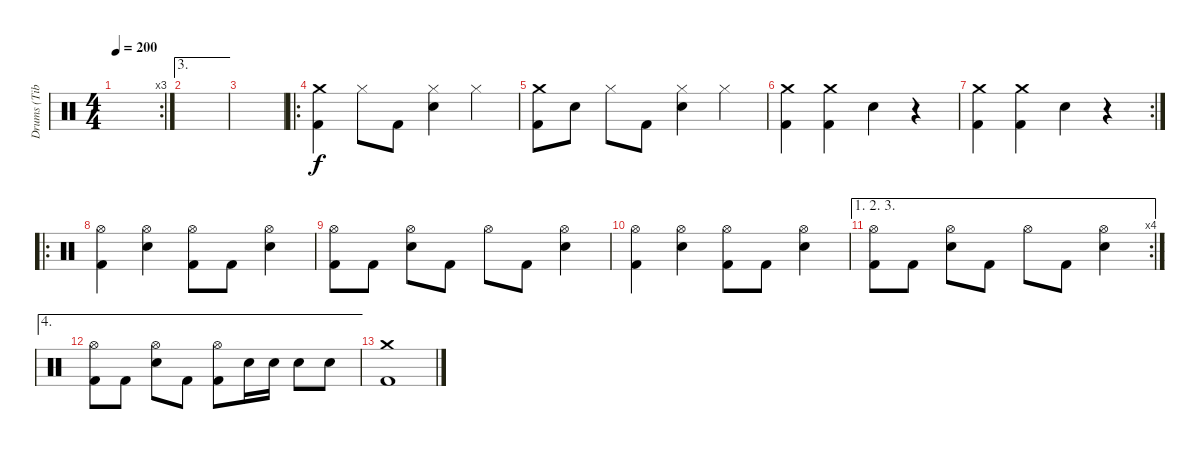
\track ("Drums (Tibcsi Kiss)" "Drums (Tib") {instrument percussion}
\staff {score}
\articulation defaults
\rc 3
\ts (4 4)
\tempo 200
\clef neutral
\ks c
|
\ae 3
|
|
\ro
("Crash medium (hit)" "Kick (hit) 2").4 "Hi-Hat (closed)".8 "Kick (hit) 2".8 ("Hi-Hat (closed)" "Snare (hit) 2").4 "Hi-Hat (closed)".4 |
("Crash medium (hit)" "Kick (hit) 2").8 "Snare (hit) 2".8 "Hi-Hat (closed)".8 "Kick (hit) 2".8 ("Hi-Hat (closed)" "Snare (hit) 2").4 "Hi-Hat (closed)".4 |
("Crash medium (hit)" "Kick (hit) 2").4 ("Crash medium (hit)" "Kick (hit) 2").4 "Snare (hit) 2".4 r.4 |
\rc 2
("Crash medium (hit)" "Kick (hit) 2").4 ("Crash medium (hit)" "Kick (hit) 2").4 "Snare (hit) 2".4 r.4 |
\ro
("Hi-Hat (open)" "Kick (hit) 2").4 ("Hi-Hat (open)" "Snare (hit) 2").4 ("Hi-Hat (open)" "Kick (hit) 2").8 "Kick (hit) 2".8 ("Hi-Hat (open)" "Snare (hit) 2").4 |
("Hi-Hat (open)" "Kick (hit) 2").8 "Kick (hit) 2".8 ("Hi-Hat (open)" "Snare (hit) 2").8 "Kick (hit) 2".8 "Hi-Hat (open)".8 "Kick (hit) 2".8 ("Hi-Hat (open)" "Snare (hit) 2").4 |
("Hi-Hat (open)" "Kick (hit) 2").4 ("Hi-Hat (open)" "Snare (hit) 2").4 ("Hi-Hat (open)" "Kick (hit) 2").8 "Kick (hit) 2".8 ("Hi-Hat (open)" "Snare (hit) 2").4 |
\ae (1 2 3)
\rc 4
("Hi-Hat (open)" "Kick (hit) 2").8 "Kick (hit) 2".8 ("Hi-Hat (open)" "Snare (hit) 2").8 "Kick (hit) 2".8 "Hi-Hat (open)".8 "Kick (hit) 2".8 ("Hi-Hat (open)" "Snare (hit) 2").4 |
\ae 4
("Hi-Hat (open)" "Kick (hit) 2").8 "Kick (hit) 2".8 ("Hi-Hat (open)" "Snare (hit) 2").8 "Kick (hit) 2".8 ("Hi-Hat (open)" "Kick (hit) 2").8 "Snare (hit) 2".16 "Snare (hit) 2".16 "Snare (hit) 2".8 "Snare (hit) 2".8 |
("Crash medium (hit)" "Kick (hit) 2").1
